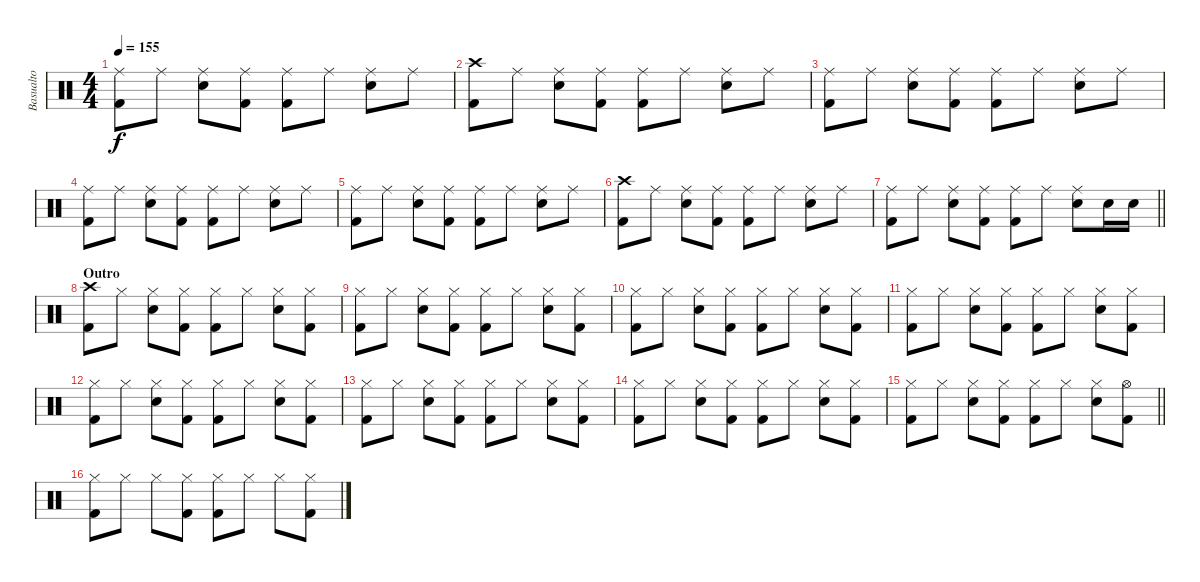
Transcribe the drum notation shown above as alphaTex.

\track ("Basualto" "Basualto") {instrument percussion}
\staff {score}
\articulation defaults
\ts (4 4)
\tempo 155
\clef neutral
\ks c
("Ride (middle)" "Kick (hit) 2").8{dy f} "Ride (middle)".8 ("Ride (middle)" "Electric Snare (hit)").8 ("Ride (middle)" "Kick (hit) 2").8 ("Ride (middle)" "Kick (hit) 2").8 "Ride (middle)".8 ("Ride (middle)" "Electric Snare (hit)").8 "Ride (middle)".8 |
("Crash high (hit)" "Kick (hit) 2").8 "Ride (middle)".8 ("Ride (middle)" "Electric Snare (hit)").8 ("Ride (middle)" "Kick (hit) 2").8 ("Ride (middle)" "Kick (hit) 2").8 "Ride (middle)".8 ("Ride (middle)" "Electric Snare (hit)").8 "Ride (middle)".8 |
("Ride (middle)" "Kick (hit) 2").8 "Ride (middle)".8 ("Ride (middle)" "Electric Snare (hit)").8 ("Ride (middle)" "Kick (hit) 2").8 ("Ride (middle)" "Kick (hit) 2").8 "Ride (middle)".8 ("Ride (middle)" "Electric Snare (hit)").8 "Ride (middle)".8 |
("Ride (middle)" "Kick (hit) 2").8 "Ride (middle)".8 ("Ride (middle)" "Electric Snare (hit)").8 ("Ride (middle)" "Kick (hit) 2").8 ("Ride (middle)" "Kick (hit) 2").8 "Ride (middle)".8 ("Ride (middle)" "Electric Snare (hit)").8 "Ride (middle)".8 |
("Ride (middle)" "Kick (hit) 2").8 "Ride (middle)".8 ("Ride (middle)" "Electric Snare (hit)").8 ("Ride (middle)" "Kick (hit) 2").8 ("Ride (middle)" "Kick (hit) 2").8 "Ride (middle)".8 ("Ride (middle)" "Electric Snare (hit)").8 "Ride (middle)".8 |
("Crash high (hit)" "Kick (hit) 2").8 "Ride (middle)".8 ("Ride (middle)" "Electric Snare (hit)").8 ("Ride (middle)" "Kick (hit) 2").8 ("Ride (middle)" "Kick (hit) 2").8 "Ride (middle)".8 ("Ride (middle)" "Electric Snare (hit)").8 "Ride (middle)".8 |
\barLineRight lightlight
("Ride (middle)" "Kick (hit) 2").8 "Ride (middle)".8 ("Ride (middle)" "Electric Snare (hit)").8 ("Ride (middle)" "Kick (hit) 2").8 ("Ride (middle)" "Kick (hit) 2").8 "Ride (middle)".8 ("Ride (middle)" "Electric Snare (hit)").8 "Electric Snare (hit)".16 "Electric Snare (hit)".16 |
\section ("" "Outro")
("Crash high (hit)" "Kick (hit) 2").8 "Hi-Hat (closed)".8 ("Hi-Hat (closed)" "Electric Snare (hit)").8 ("Hi-Hat (closed)" "Kick (hit) 2").8 ("Hi-Hat (closed)" "Kick (hit) 2").8 "Hi-Hat (closed)".8 ("Hi-Hat (closed)" "Electric Snare (hit)").8 ("Hi-Hat (closed)" "Kick (hit) 2").8 |
("Hi-Hat (closed)" "Kick (hit) 2").8 "Hi-Hat (closed)".8 ("Hi-Hat (closed)" "Electric Snare (hit)").8 ("Hi-Hat (closed)" "Kick (hit) 2").8 ("Hi-Hat (closed)" "Kick (hit) 2").8 "Hi-Hat (closed)".8 ("Hi-Hat (closed)" "Electric Snare (hit)").8 ("Hi-Hat (closed)" "Kick (hit) 2").8 |
("Hi-Hat (closed)" "Kick (hit) 2").8 "Hi-Hat (closed)".8 ("Hi-Hat (closed)" "Electric Snare (hit)").8 ("Hi-Hat (closed)" "Kick (hit) 2").8 ("Hi-Hat (closed)" "Kick (hit) 2").8 "Hi-Hat (closed)".8 ("Hi-Hat (closed)" "Electric Snare (hit)").8 ("Hi-Hat (closed)" "Kick (hit) 2").8 |
("Hi-Hat (closed)" "Kick (hit) 2").8 "Hi-Hat (closed)".8 ("Hi-Hat (closed)" "Electric Snare (hit)").8 ("Hi-Hat (closed)" "Kick (hit) 2").8 ("Hi-Hat (closed)" "Kick (hit) 2").8 "Hi-Hat (closed)".8 ("Hi-Hat (closed)" "Electric Snare (hit)").8 ("Hi-Hat (closed)" "Kick (hit) 2").8 |
("Hi-Hat (closed)" "Kick (hit) 2").8 "Hi-Hat (closed)".8 ("Hi-Hat (closed)" "Electric Snare (hit)").8 ("Hi-Hat (closed)" "Kick (hit) 2").8 ("Hi-Hat (closed)" "Kick (hit) 2").8 "Hi-Hat (closed)".8 ("Hi-Hat (closed)" "Electric Snare (hit)").8 ("Hi-Hat (closed)" "Kick (hit) 2").8 |
("Hi-Hat (closed)" "Kick (hit) 2").8 "Hi-Hat (closed)".8 ("Hi-Hat (closed)" "Electric Snare (hit)").8 ("Hi-Hat (closed)" "Kick (hit) 2").8 ("Hi-Hat (closed)" "Kick (hit) 2").8 "Hi-Hat (closed)".8 ("Hi-Hat (closed)" "Electric Snare (hit)").8 ("Hi-Hat (closed)" "Kick (hit) 2").8 |
("Hi-Hat (closed)" "Kick (hit) 2").8 "Hi-Hat (closed)".8 ("Hi-Hat (closed)" "Electric Snare (hit)").8 ("Hi-Hat (closed)" "Kick (hit) 2").8 ("Hi-Hat (closed)" "Kick (hit) 2").8 "Hi-Hat (closed)".8 ("Hi-Hat (closed)" "Electric Snare (hit)").8 ("Hi-Hat (closed)" "Kick (hit) 2").8 |
\barLineRight lightlight
("Hi-Hat (closed)" "Kick (hit) 2").8 "Hi-Hat (closed)".8 ("Hi-Hat (closed)" "Electric Snare (hit)").8 ("Hi-Hat (closed)" "Kick (hit) 2").8 ("Hi-Hat (closed)" "Kick (hit) 2").8 "Hi-Hat (closed)".8 ("Hi-Hat (closed)" "Electric Snare (hit)").8 ("Hi-Hat (open)" "Kick (hit) 2").8 |
\section ("" "")
("Hi-Hat (closed)" "Kick (hit) 2").8 "Hi-Hat (closed)".8 "Hi-Hat (closed)".8 ("Hi-Hat (closed)" "Kick (hit) 2").8 ("Hi-Hat (closed)" "Kick (hit) 2").8 "Hi-Hat (closed)".8 "Hi-Hat (closed)".8 ("Hi-Hat (closed)" "Kick (hit) 2").8
